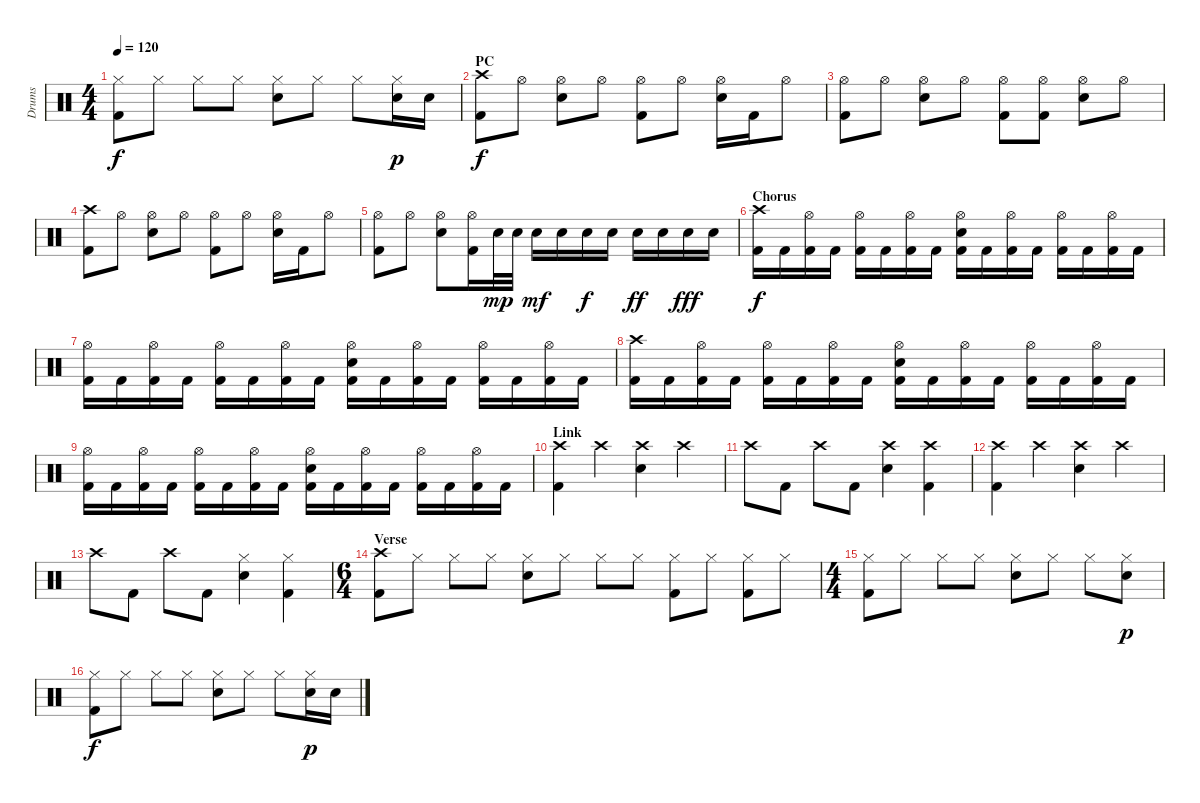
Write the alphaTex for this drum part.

\track ("Drums" "Drums") {instrument percussion}
\staff {score}
\articulation defaults
\ts (4 4)
\tempo 120
\clef neutral
\ks c
("Hi-Hat (closed)" "Kick (hit) 2").8{dy f} "Hi-Hat (closed)".8 "Hi-Hat (closed)".8 "Hi-Hat (closed)".8 ("Hi-Hat (closed)" "Electric Snare (hit)").8 "Hi-Hat (closed)".8 "Hi-Hat (closed)".8 ("Hi-Hat (closed)" "Electric Snare (hit)").16{dy p} "Electric Snare (hit)".16 |
\section ("" "PC")
("Crash high (hit)" "Kick (hit) 2").8{dy f} "Hi-Hat (open)".8 ("Hi-Hat (open)" "Electric Snare (hit)").8 "Hi-Hat (open)".8 ("Hi-Hat (open)" "Kick (hit) 2").8 "Hi-Hat (open)".8 ("Hi-Hat (open)" "Electric Snare (hit)").16 "Kick (hit) 2".16 "Hi-Hat (open)".8 |
("Hi-Hat (open)" "Kick (hit) 2").8 "Hi-Hat (open)".8 ("Hi-Hat (open)" "Electric Snare (hit)").8 "Hi-Hat (open)".8 ("Hi-Hat (open)" "Kick (hit) 2").8 ("Hi-Hat (open)" "Kick (hit) 2").8 ("Hi-Hat (open)" "Electric Snare (hit)").8 "Hi-Hat (open)".8 |
("Crash high (hit)" "Kick (hit) 2").8 "Hi-Hat (open)".8 ("Hi-Hat (open)" "Electric Snare (hit)").8 "Hi-Hat (open)".8 ("Hi-Hat (open)" "Kick (hit) 2").8 "Hi-Hat (open)".8 ("Hi-Hat (open)" "Electric Snare (hit)").16 "Kick (hit) 2".16 "Hi-Hat (open)".8 |
("Hi-Hat (open)" "Kick (hit) 2").8 "Hi-Hat (open)".8 ("Hi-Hat (open)" "Electric Snare (hit)").8 ("Hi-Hat (open)" "Kick (hit) 2").16 "Electric Snare (hit)".32{dy mp} "Electric Snare (hit)".32 "Electric Snare (hit)".16{dy mf} "Electric Snare (hit)".16 "Electric Snare (hit)".16{dy f} "Electric Snare (hit)".16 "Electric Snare (hit)".16{dy ff} "Electric Snare (hit)".16 "Electric Snare (hit)".16{dy fff} "Electric Snare (hit)".16 |
\section ("" "Chorus")
("Crash high (hit)" "Kick (hit) 2").16{dy f} "Kick (hit) 2".16 ("Hi-Hat (open)" "Kick (hit) 2").16 "Kick (hit) 2".16 ("Hi-Hat (open)" "Kick (hit) 2").16 "Kick (hit) 2".16 ("Hi-Hat (open)" "Kick (hit) 2").16 "Kick (hit) 2".16 ("Hi-Hat (open)" "Electric Snare (hit)" "Kick (hit) 2").16 "Kick (hit) 2".16 ("Hi-Hat (open)" "Kick (hit) 2").16 "Kick (hit) 2".16 ("Hi-Hat (open)" "Kick (hit) 2").16 "Kick (hit) 2".16 ("Hi-Hat (open)" "Kick (hit) 2").16 "Kick (hit) 2".16 |
("Hi-Hat (open)" "Kick (hit) 2").16 "Kick (hit) 2".16 ("Hi-Hat (open)" "Kick (hit) 2").16 "Kick (hit) 2".16 ("Hi-Hat (open)" "Kick (hit) 2").16 "Kick (hit) 2".16 ("Hi-Hat (open)" "Kick (hit) 2").16 "Kick (hit) 2".16 ("Hi-Hat (open)" "Electric Snare (hit)" "Kick (hit) 2").16 "Kick (hit) 2".16 ("Hi-Hat (open)" "Kick (hit) 2").16 "Kick (hit) 2".16 ("Hi-Hat (open)" "Kick (hit) 2").16 "Kick (hit) 2".16 ("Hi-Hat (open)" "Kick (hit) 2").16 "Kick (hit) 2".16 |
("Crash high (hit)" "Kick (hit) 2").16 "Kick (hit) 2".16 ("Hi-Hat (open)" "Kick (hit) 2").16 "Kick (hit) 2".16 ("Hi-Hat (open)" "Kick (hit) 2").16 "Kick (hit) 2".16 ("Hi-Hat (open)" "Kick (hit) 2").16 "Kick (hit) 2".16 ("Hi-Hat (open)" "Electric Snare (hit)" "Kick (hit) 2").16 "Kick (hit) 2".16 ("Hi-Hat (open)" "Kick (hit) 2").16 "Kick (hit) 2".16 ("Hi-Hat (open)" "Kick (hit) 2").16 "Kick (hit) 2".16 ("Hi-Hat (open)" "Kick (hit) 2").16 "Kick (hit) 2".16 |
("Hi-Hat (open)" "Kick (hit) 2").16 "Kick (hit) 2".16 ("Hi-Hat (open)" "Kick (hit) 2").16 "Kick (hit) 2".16 ("Hi-Hat (open)" "Kick (hit) 2").16 "Kick (hit) 2".16 ("Hi-Hat (open)" "Kick (hit) 2").16 "Kick (hit) 2".16 ("Hi-Hat (open)" "Electric Snare (hit)" "Kick (hit) 2").16 "Kick (hit) 2".16 ("Hi-Hat (open)" "Kick (hit) 2").16 "Kick (hit) 2".16 ("Hi-Hat (open)" "Kick (hit) 2").16 "Kick (hit) 2".16 ("Hi-Hat (open)" "Kick (hit) 2").16 "Kick (hit) 2".16 |
\section ("" "Link")
("Crash high (hit)" "Kick (hit) 2").4 "Crash high (hit)".4 ("Crash high (hit)" "Electric Snare (hit)").4 "Crash high (hit)".4 |
"Crash high (hit)".8 "Kick (hit) 2".8 "Crash high (hit)".8 "Kick (hit) 2".8 ("Crash high (hit)" "Electric Snare (hit)").4 ("Crash high (hit)" "Kick (hit) 2").4 |
("Crash high (hit)" "Kick (hit) 2").4 "Crash high (hit)".4 ("Crash high (hit)" "Electric Snare (hit)").4 "Crash high (hit)".4 |
"Crash high (hit)".8 "Kick (hit) 2".8 "Crash high (hit)".8 "Kick (hit) 2".8 ("Hi-Hat (closed)" "Electric Snare (hit)").4 ("Hi-Hat (closed)" "Kick (hit) 2").4 |
\ts (6 4)
\section ("" "Verse")
("Crash high (hit)" "Kick (hit) 2").8 "Hi-Hat (closed)".8 "Hi-Hat (closed)".8 "Hi-Hat (closed)".8 ("Hi-Hat (closed)" "Electric Snare (hit)").8 "Hi-Hat (closed)".8 "Hi-Hat (closed)".8 "Hi-Hat (closed)".8 ("Hi-Hat (closed)" "Kick (hit) 2").8 "Hi-Hat (closed)".8 ("Hi-Hat (closed)" "Kick (hit) 2").8 "Hi-Hat (closed)".8 |
\ts (4 4)
("Hi-Hat (closed)" "Kick (hit) 2").8 "Hi-Hat (closed)".8 "Hi-Hat (closed)".8 "Hi-Hat (closed)".8 ("Hi-Hat (closed)" "Electric Snare (hit)").8 "Hi-Hat (closed)".8 "Hi-Hat (closed)".8 ("Hi-Hat (closed)" "Electric Snare (hit)").8{dy p} |
("Hi-Hat (closed)" "Kick (hit) 2").8{dy f} "Hi-Hat (closed)".8 "Hi-Hat (closed)".8 "Hi-Hat (closed)".8 ("Hi-Hat (closed)" "Electric Snare (hit)").8 "Hi-Hat (closed)".8 "Hi-Hat (closed)".8 ("Hi-Hat (closed)" "Electric Snare (hit)").16{dy p} "Electric Snare (hit)".16
